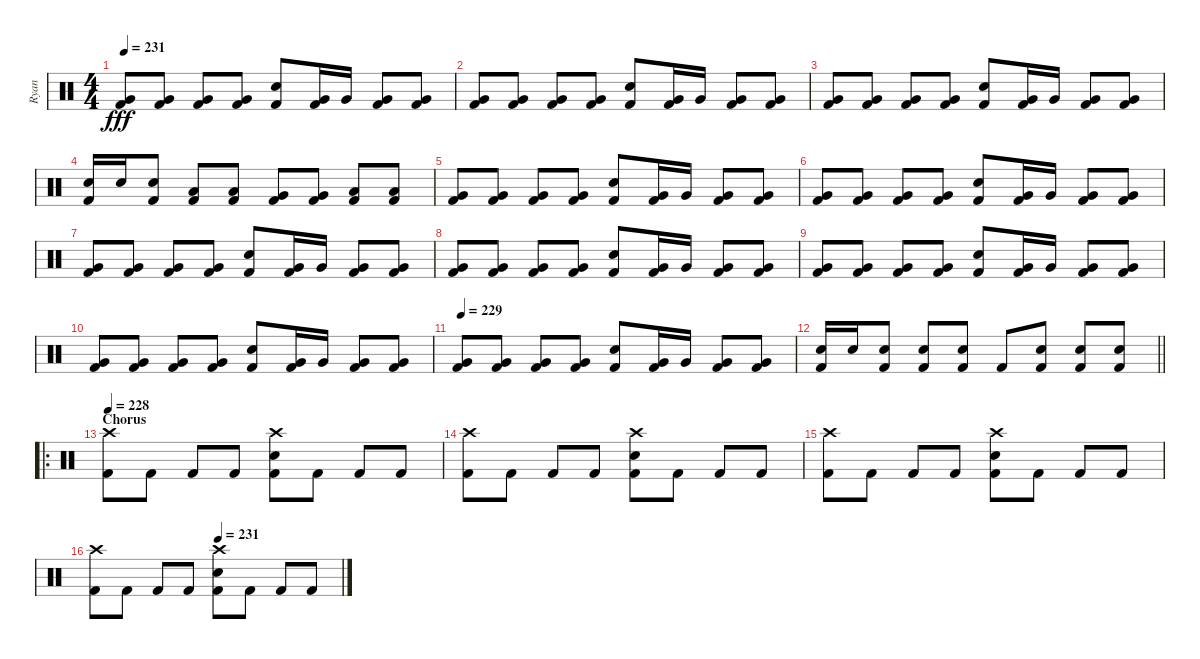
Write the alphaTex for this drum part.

\track ("Ryan" "Ryan") {instrument percussion}
\staff {score}
\articulation defaults
\ts (4 4)
\tempo 231
\clef neutral
\ks c
("Very Low Tom (hit)" "Kick (hit) 2").8{dy fff} ("Very Low Tom (hit)" "Kick (hit) 2").8 ("Very Low Tom (hit)" "Kick (hit) 2").8 ("Very Low Tom (hit)" "Kick (hit) 2").8 ("Electric Snare (hit)" "Kick (hit) 2").8 ("Very Low Tom (hit)" "Kick (hit) 2").16 "Very Low Tom (hit)".16 ("Very Low Tom (hit)" "Kick (hit) 2").8 ("Very Low Tom (hit)" "Kick (hit) 2").8 |
("Very Low Tom (hit)" "Kick (hit) 2").8 ("Very Low Tom (hit)" "Kick (hit) 2").8 ("Very Low Tom (hit)" "Kick (hit) 2").8 ("Very Low Tom (hit)" "Kick (hit) 2").8 ("Electric Snare (hit)" "Kick (hit) 2").8 ("Very Low Tom (hit)" "Kick (hit) 2").16 "Very Low Tom (hit)".16 ("Very Low Tom (hit)" "Kick (hit) 2").8 ("Very Low Tom (hit)" "Kick (hit) 2").8 |
("Very Low Tom (hit)" "Kick (hit) 2").8 ("Very Low Tom (hit)" "Kick (hit) 2").8 ("Very Low Tom (hit)" "Kick (hit) 2").8 ("Very Low Tom (hit)" "Kick (hit) 2").8 ("Electric Snare (hit)" "Kick (hit) 2").8 ("Very Low Tom (hit)" "Kick (hit) 2").16 "Very Low Tom (hit)".16 ("Very Low Tom (hit)" "Kick (hit) 2").8 ("Very Low Tom (hit)" "Kick (hit) 2").8 |
("Electric Snare (hit)" "Kick (hit) 2").16 "Electric Snare (hit)".16 ("Electric Snare (hit)" "Kick (hit) 2").8 ("Low Floor Tom (hit)" "Kick (hit) 2").8 ("Low Floor Tom (hit)" "Kick (hit) 2").8 ("Very Low Tom (hit)" "Kick (hit) 2").8 ("Very Low Tom (hit)" "Kick (hit) 2").8 ("Low Tom (hit)" "Kick (hit) 2").8 ("Low Tom (hit)" "Kick (hit) 2").8 |
("Very Low Tom (hit)" "Kick (hit) 2").8 ("Very Low Tom (hit)" "Kick (hit) 2").8 ("Very Low Tom (hit)" "Kick (hit) 2").8 ("Very Low Tom (hit)" "Kick (hit) 2").8 ("Electric Snare (hit)" "Kick (hit) 2").8 ("Very Low Tom (hit)" "Kick (hit) 2").16 "Very Low Tom (hit)".16 ("Very Low Tom (hit)" "Kick (hit) 2").8 ("Very Low Tom (hit)" "Kick (hit) 2").8 |
("Very Low Tom (hit)" "Kick (hit) 2").8 ("Very Low Tom (hit)" "Kick (hit) 2").8 ("Very Low Tom (hit)" "Kick (hit) 2").8 ("Very Low Tom (hit)" "Kick (hit) 2").8 ("Electric Snare (hit)" "Kick (hit) 2").8 ("Very Low Tom (hit)" "Kick (hit) 2").16 "Very Low Tom (hit)".16 ("Very Low Tom (hit)" "Kick (hit) 2").8 ("Very Low Tom (hit)" "Kick (hit) 2").8 |
("Very Low Tom (hit)" "Kick (hit) 2").8 ("Very Low Tom (hit)" "Kick (hit) 2").8 ("Very Low Tom (hit)" "Kick (hit) 2").8 ("Very Low Tom (hit)" "Kick (hit) 2").8 ("Electric Snare (hit)" "Kick (hit) 2").8 ("Very Low Tom (hit)" "Kick (hit) 2").16 "Very Low Tom (hit)".16 ("Very Low Tom (hit)" "Kick (hit) 2").8 ("Very Low Tom (hit)" "Kick (hit) 2").8 |
("Very Low Tom (hit)" "Kick (hit) 2").8 ("Very Low Tom (hit)" "Kick (hit) 2").8 ("Very Low Tom (hit)" "Kick (hit) 2").8 ("Very Low Tom (hit)" "Kick (hit) 2").8 ("Electric Snare (hit)" "Kick (hit) 2").8 ("Very Low Tom (hit)" "Kick (hit) 2").16 "Very Low Tom (hit)".16 ("Very Low Tom (hit)" "Kick (hit) 2").8 ("Very Low Tom (hit)" "Kick (hit) 2").8 |
("Very Low Tom (hit)" "Kick (hit) 2").8 ("Very Low Tom (hit)" "Kick (hit) 2").8 ("Very Low Tom (hit)" "Kick (hit) 2").8 ("Very Low Tom (hit)" "Kick (hit) 2").8 ("Electric Snare (hit)" "Kick (hit) 2").8 ("Very Low Tom (hit)" "Kick (hit) 2").16 "Very Low Tom (hit)".16 ("Very Low Tom (hit)" "Kick (hit) 2").8 ("Very Low Tom (hit)" "Kick (hit) 2").8 |
("Very Low Tom (hit)" "Kick (hit) 2").8 ("Very Low Tom (hit)" "Kick (hit) 2").8 ("Very Low Tom (hit)" "Kick (hit) 2").8 ("Very Low Tom (hit)" "Kick (hit) 2").8 ("Electric Snare (hit)" "Kick (hit) 2").8 ("Very Low Tom (hit)" "Kick (hit) 2").16 "Very Low Tom (hit)".16 ("Very Low Tom (hit)" "Kick (hit) 2").8 ("Very Low Tom (hit)" "Kick (hit) 2").8 |
\tempo 229
("Very Low Tom (hit)" "Kick (hit) 2").8 ("Very Low Tom (hit)" "Kick (hit) 2").8 ("Very Low Tom (hit)" "Kick (hit) 2").8 ("Very Low Tom (hit)" "Kick (hit) 2").8 ("Electric Snare (hit)" "Kick (hit) 2").8 ("Very Low Tom (hit)" "Kick (hit) 2").16 "Very Low Tom (hit)".16 ("Very Low Tom (hit)" "Kick (hit) 2").8 ("Very Low Tom (hit)" "Kick (hit) 2").8 |
\barLineRight lightlight
("Electric Snare (hit)" "Kick (hit) 2").16 "Electric Snare (hit)".16 ("Electric Snare (hit)" "Kick (hit) 2").8 ("Electric Snare (hit)" "Kick (hit) 2").8 ("Electric Snare (hit)" "Kick (hit) 2").8 "Kick (hit) 2".8 ("Electric Snare (hit)" "Kick (hit) 2").8 ("Electric Snare (hit)" "Kick (hit) 2").8 ("Electric Snare (hit)" "Kick (hit) 2").8 |
\ro
\section ("" "Chorus")
\tempo 228
("Crash high (hit)" "Kick (hit) 2").8 "Kick (hit) 2".8 "Kick (hit) 2".8 "Kick (hit) 2".8 ("Crash high (hit)" "Electric Snare (hit)" "Kick (hit) 2").8 "Kick (hit) 2".8 "Kick (hit) 2".8 "Kick (hit) 2".8 |
("Crash high (hit)" "Kick (hit) 2").8 "Kick (hit) 2".8 "Kick (hit) 2".8 "Kick (hit) 2".8 ("Crash high (hit)" "Electric Snare (hit)" "Kick (hit) 2").8 "Kick (hit) 2".8 "Kick (hit) 2".8 "Kick (hit) 2".8 |
("Crash high (hit)" "Kick (hit) 2").8 "Kick (hit) 2".8 "Kick (hit) 2".8 "Kick (hit) 2".8 ("Crash high (hit)" "Electric Snare (hit)" "Kick (hit) 2").8 "Kick (hit) 2".8 "Kick (hit) 2".8 "Kick (hit) 2".8 |
\tempo (231 0.5)
("Crash high (hit)" "Kick (hit) 2").8 "Kick (hit) 2".8 "Kick (hit) 2".8 "Kick (hit) 2".8 ("Crash high (hit)" "Electric Snare (hit)" "Kick (hit) 2").8 "Kick (hit) 2".8 "Kick (hit) 2".8 "Kick (hit) 2".8
